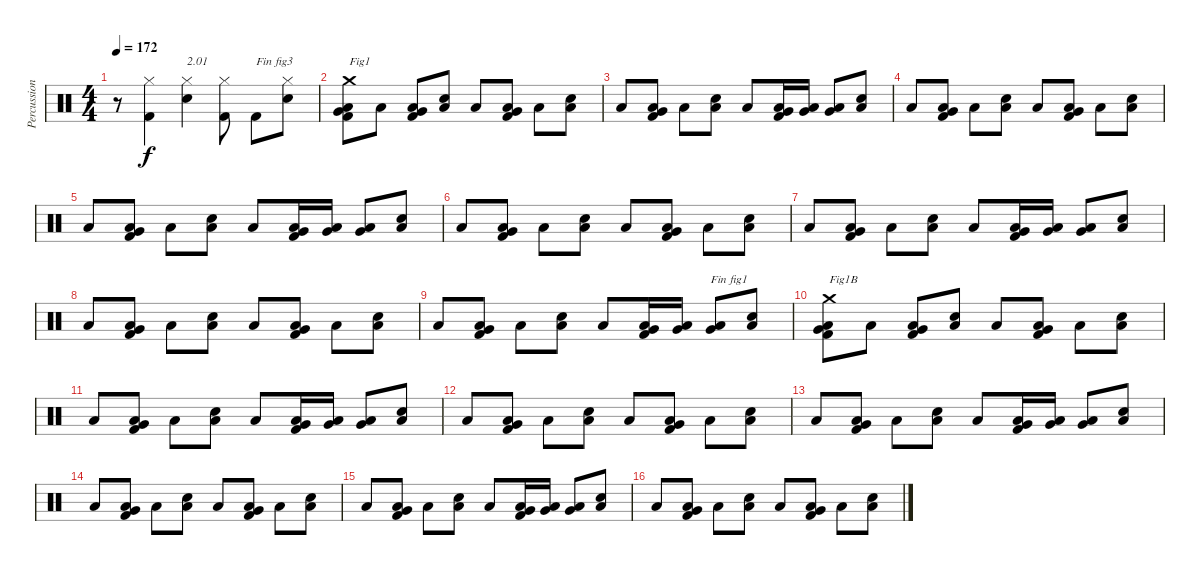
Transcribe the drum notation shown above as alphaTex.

\track ("Percussions" "Percussion") {instrument percussion}
\staff {score}
\articulation defaults
\ts (4 4)
\tempo 172
\clef neutral
\ks c
r.8{dy f} ("Kick (hit) 2" "Hi-Hat (closed)").4 ("Electric Snare (hit)" "Hi-Hat (closed)").4{txt "2.01"} ("Kick (hit) 2" "Hi-Hat (closed)").8 "Kick (hit) 2".8{txt "Fin fig3"} ("Electric Snare (hit)" "Hi-Hat (closed)").8 |
("Kick (hit) 2" "Low Floor Tom (hit)" "Very Low Tom (hit)" "Crash medium (hit)").8{txt "Fig1"} "Low Floor Tom (hit)".8 ("Kick (hit) 2" "Low Floor Tom (hit)" "Very Low Tom (hit)").8 ("Electric Snare (hit)" "Low Floor Tom (hit)").8 "Low Floor Tom (hit)".8 ("Kick (hit) 2" "Low Floor Tom (hit)" "Very Low Tom (hit)").8 "Low Floor Tom (hit)".8 ("Electric Snare (hit)" "Low Floor Tom (hit)").8 |
"Low Floor Tom (hit)".8 ("Kick (hit) 2" "Low Floor Tom (hit)" "Very Low Tom (hit)").8 "Low Floor Tom (hit)".8 ("Electric Snare (hit)" "Low Floor Tom (hit)").8 "Low Floor Tom (hit)".8 ("Kick (hit) 2" "Low Floor Tom (hit)" "Very Low Tom (hit)").16 ("Low Floor Tom (hit)" "Very Low Tom (hit)").16 ("Low Floor Tom (hit)" "Very Low Tom (hit)").8 ("Electric Snare (hit)" "Low Floor Tom (hit)").8 |
"Low Floor Tom (hit)".8 ("Kick (hit) 2" "Low Floor Tom (hit)" "Very Low Tom (hit)").8 "Low Floor Tom (hit)".8 ("Electric Snare (hit)" "Low Floor Tom (hit)").8 "Low Floor Tom (hit)".8 ("Kick (hit) 2" "Low Floor Tom (hit)" "Very Low Tom (hit)").8 "Low Floor Tom (hit)".8 ("Electric Snare (hit)" "Low Floor Tom (hit)").8 |
"Low Floor Tom (hit)".8 ("Kick (hit) 2" "Low Floor Tom (hit)" "Very Low Tom (hit)").8 "Low Floor Tom (hit)".8 ("Electric Snare (hit)" "Low Floor Tom (hit)").8 "Low Floor Tom (hit)".8 ("Kick (hit) 2" "Low Floor Tom (hit)" "Very Low Tom (hit)").16 ("Low Floor Tom (hit)" "Very Low Tom (hit)").16 ("Low Floor Tom (hit)" "Very Low Tom (hit)").8 ("Electric Snare (hit)" "Low Floor Tom (hit)").8 |
"Low Floor Tom (hit)".8 ("Kick (hit) 2" "Low Floor Tom (hit)" "Very Low Tom (hit)").8 "Low Floor Tom (hit)".8 ("Electric Snare (hit)" "Low Floor Tom (hit)").8 "Low Floor Tom (hit)".8 ("Kick (hit) 2" "Low Floor Tom (hit)" "Very Low Tom (hit)").8 "Low Floor Tom (hit)".8 ("Electric Snare (hit)" "Low Floor Tom (hit)").8 |
"Low Floor Tom (hit)".8 ("Kick (hit) 2" "Low Floor Tom (hit)" "Very Low Tom (hit)").8 "Low Floor Tom (hit)".8 ("Electric Snare (hit)" "Low Floor Tom (hit)").8 "Low Floor Tom (hit)".8 ("Kick (hit) 2" "Low Floor Tom (hit)" "Very Low Tom (hit)").16 ("Low Floor Tom (hit)" "Very Low Tom (hit)").16 ("Low Floor Tom (hit)" "Very Low Tom (hit)").8 ("Electric Snare (hit)" "Low Floor Tom (hit)").8 |
"Low Floor Tom (hit)".8 ("Kick (hit) 2" "Low Floor Tom (hit)" "Very Low Tom (hit)").8 "Low Floor Tom (hit)".8 ("Electric Snare (hit)" "Low Floor Tom (hit)").8 "Low Floor Tom (hit)".8 ("Kick (hit) 2" "Low Floor Tom (hit)" "Very Low Tom (hit)").8 "Low Floor Tom (hit)".8 ("Electric Snare (hit)" "Low Floor Tom (hit)").8 |
"Low Floor Tom (hit)".8 ("Kick (hit) 2" "Low Floor Tom (hit)" "Very Low Tom (hit)").8 "Low Floor Tom (hit)".8 ("Electric Snare (hit)" "Low Floor Tom (hit)").8 "Low Floor Tom (hit)".8 ("Kick (hit) 2" "Low Floor Tom (hit)" "Very Low Tom (hit)").16 ("Low Floor Tom (hit)" "Very Low Tom (hit)").16 ("Low Floor Tom (hit)" "Very Low Tom (hit)").8{txt "Fin fig1"} ("Electric Snare (hit)" "Low Floor Tom (hit)").8 |
("Kick (hit) 2" "Low Floor Tom (hit)" "Very Low Tom (hit)" "Crash medium (hit)").8{txt "Fig1B"} "Low Floor Tom (hit)".8 ("Kick (hit) 2" "Low Floor Tom (hit)" "Very Low Tom (hit)").8 ("Electric Snare (hit)" "Low Floor Tom (hit)").8 "Low Floor Tom (hit)".8 ("Kick (hit) 2" "Low Floor Tom (hit)" "Very Low Tom (hit)").8 "Low Floor Tom (hit)".8 ("Electric Snare (hit)" "Low Floor Tom (hit)").8 |
"Low Floor Tom (hit)".8 ("Kick (hit) 2" "Low Floor Tom (hit)" "Very Low Tom (hit)").8 "Low Floor Tom (hit)".8 ("Electric Snare (hit)" "Low Floor Tom (hit)").8 "Low Floor Tom (hit)".8 ("Kick (hit) 2" "Low Floor Tom (hit)" "Very Low Tom (hit)").16 ("Low Floor Tom (hit)" "Very Low Tom (hit)").16 ("Low Floor Tom (hit)" "Very Low Tom (hit)").8 ("Electric Snare (hit)" "Low Floor Tom (hit)").8 |
"Low Floor Tom (hit)".8 ("Kick (hit) 2" "Low Floor Tom (hit)" "Very Low Tom (hit)").8 "Low Floor Tom (hit)".8 ("Electric Snare (hit)" "Low Floor Tom (hit)").8 "Low Floor Tom (hit)".8 ("Kick (hit) 2" "Low Floor Tom (hit)" "Very Low Tom (hit)").8 "Low Floor Tom (hit)".8 ("Electric Snare (hit)" "Low Floor Tom (hit)").8 |
"Low Floor Tom (hit)".8 ("Kick (hit) 2" "Low Floor Tom (hit)" "Very Low Tom (hit)").8 "Low Floor Tom (hit)".8 ("Electric Snare (hit)" "Low Floor Tom (hit)").8 "Low Floor Tom (hit)".8 ("Kick (hit) 2" "Low Floor Tom (hit)" "Very Low Tom (hit)").16 ("Low Floor Tom (hit)" "Very Low Tom (hit)").16 ("Low Floor Tom (hit)" "Very Low Tom (hit)").8 ("Electric Snare (hit)" "Low Floor Tom (hit)").8 |
"Low Floor Tom (hit)".8 ("Kick (hit) 2" "Low Floor Tom (hit)" "Very Low Tom (hit)").8 "Low Floor Tom (hit)".8 ("Electric Snare (hit)" "Low Floor Tom (hit)").8 "Low Floor Tom (hit)".8 ("Kick (hit) 2" "Low Floor Tom (hit)" "Very Low Tom (hit)").8 "Low Floor Tom (hit)".8 ("Electric Snare (hit)" "Low Floor Tom (hit)").8 |
"Low Floor Tom (hit)".8 ("Kick (hit) 2" "Low Floor Tom (hit)" "Very Low Tom (hit)").8 "Low Floor Tom (hit)".8 ("Electric Snare (hit)" "Low Floor Tom (hit)").8 "Low Floor Tom (hit)".8 ("Kick (hit) 2" "Low Floor Tom (hit)" "Very Low Tom (hit)").16 ("Low Floor Tom (hit)" "Very Low Tom (hit)").16 ("Low Floor Tom (hit)" "Very Low Tom (hit)").8 ("Electric Snare (hit)" "Low Floor Tom (hit)").8 |
"Low Floor Tom (hit)".8 ("Kick (hit) 2" "Low Floor Tom (hit)" "Very Low Tom (hit)").8 "Low Floor Tom (hit)".8 ("Electric Snare (hit)" "Low Floor Tom (hit)").8 "Low Floor Tom (hit)".8 ("Kick (hit) 2" "Low Floor Tom (hit)" "Very Low Tom (hit)").8 "Low Floor Tom (hit)".8 ("Electric Snare (hit)" "Low Floor Tom (hit)").8
